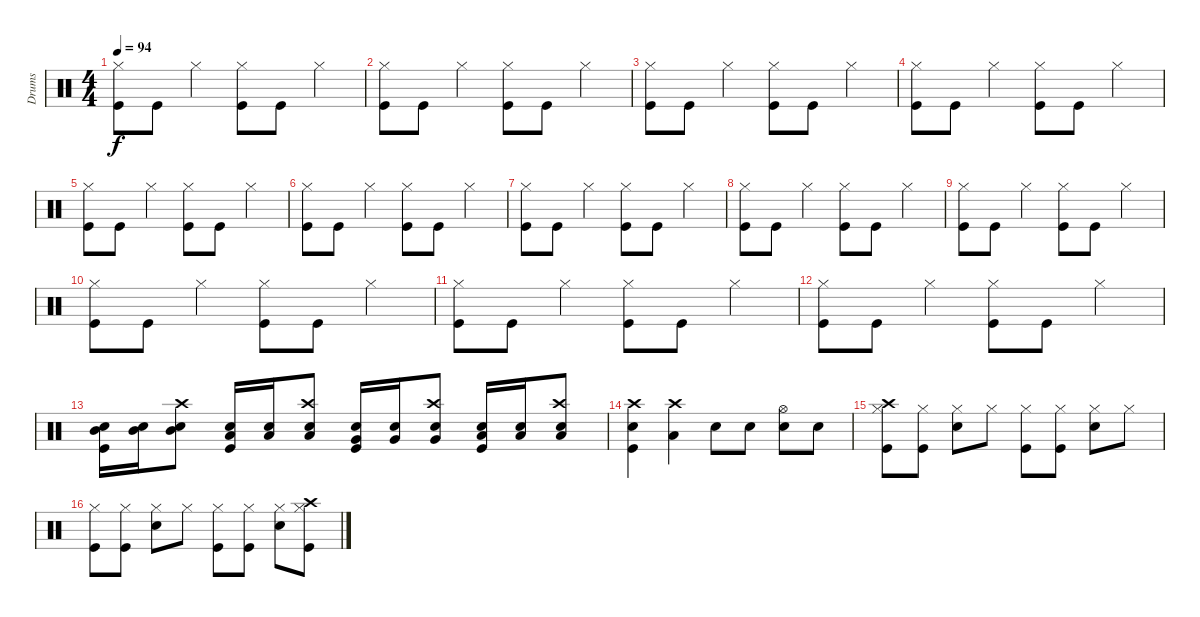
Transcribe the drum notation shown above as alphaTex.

\track ("Drums" "Drums") {instrument percussion}
\staff {score}
\articulation defaults
\ts (4 4)
\tempo 94
\clef neutral
\ks c
("Hi-Hat (closed)" "Kick (hit)").8{dy f} "Kick (hit)".8 "Hi-Hat (closed)".4 ("Hi-Hat (closed)" "Kick (hit)").8 "Kick (hit)".8 "Hi-Hat (closed)".4 |
("Hi-Hat (closed)" "Kick (hit)").8 "Kick (hit)".8 "Hi-Hat (closed)".4 ("Hi-Hat (closed)" "Kick (hit)").8 "Kick (hit)".8 "Hi-Hat (closed)".4 |
("Hi-Hat (closed)" "Kick (hit)").8 "Kick (hit)".8 "Hi-Hat (closed)".4 ("Hi-Hat (closed)" "Kick (hit)").8 "Kick (hit)".8 "Hi-Hat (closed)".4 |
("Hi-Hat (closed)" "Kick (hit)").8 "Kick (hit)".8 "Hi-Hat (closed)".4 ("Hi-Hat (closed)" "Kick (hit)").8 "Kick (hit)".8 "Hi-Hat (closed)".4 |
("Hi-Hat (closed)" "Kick (hit)").8 "Kick (hit)".8 "Hi-Hat (closed)".4 ("Hi-Hat (closed)" "Kick (hit)").8 "Kick (hit)".8 "Hi-Hat (closed)".4 |
("Hi-Hat (closed)" "Kick (hit)").8 "Kick (hit)".8 "Hi-Hat (closed)".4 ("Hi-Hat (closed)" "Kick (hit)").8 "Kick (hit)".8 "Hi-Hat (closed)".4 |
("Hi-Hat (closed)" "Kick (hit)").8 "Kick (hit)".8 "Hi-Hat (closed)".4 ("Hi-Hat (closed)" "Kick (hit)").8 "Kick (hit)".8 "Hi-Hat (closed)".4 |
("Hi-Hat (closed)" "Kick (hit)").8 "Kick (hit)".8 "Hi-Hat (closed)".4 ("Hi-Hat (closed)" "Kick (hit)").8 "Kick (hit)".8 "Hi-Hat (closed)".4 |
("Hi-Hat (closed)" "Kick (hit)").8 "Kick (hit)".8 "Hi-Hat (closed)".4 ("Hi-Hat (closed)" "Kick (hit)").8 "Kick (hit)".8 "Hi-Hat (closed)".4 |
("Hi-Hat (closed)" "Kick (hit)").8 "Kick (hit)".8 "Hi-Hat (closed)".4 ("Hi-Hat (closed)" "Kick (hit)").8 "Kick (hit)".8 "Hi-Hat (closed)".4 |
("Hi-Hat (closed)" "Kick (hit)").8 "Kick (hit)".8 "Hi-Hat (closed)".4 ("Hi-Hat (closed)" "Kick (hit)").8 "Kick (hit)".8 "Hi-Hat (closed)".4 |
("Hi-Hat (closed)" "Kick (hit)").8 "Kick (hit)".8 "Hi-Hat (closed)".4 ("Hi-Hat (closed)" "Kick (hit)").8 "Kick (hit)".8 "Hi-Hat (closed)".4 |
("Snare (hit) 2" "Mid Tom (hit)" "Kick (hit)").16 ("Snare (hit) 2" "Mid Tom (hit)").16 ("Crash high (hit)" "Snare (hit) 2" "Mid Tom (hit)").8 ("Snare (hit) 2" "Low Tom (hit)" "Kick (hit)").16 ("Snare (hit) 2" "Low Tom (hit)").16 ("Crash high (hit)" "Snare (hit) 2" "Low Tom (hit)").8 ("Snare (hit) 2" "Very Low Tom (hit)" "Kick (hit)").16 ("Snare (hit) 2" "Very Low Tom (hit)").16 ("Crash high (hit)" "Snare (hit) 2" "Very Low Tom (hit)").8 ("Snare (hit) 2" "Low Floor Tom (hit)" "Kick (hit)").16 ("Snare (hit) 2" "Low Floor Tom (hit)").16 ("Crash high (hit)" "Snare (hit) 2" "Low Floor Tom (hit)").8 |
("Crash high (hit)" "Snare (hit) 2" "Kick (hit)").4 ("Crash high (hit)" "Low Tom (hit)").4 "Snare (hit) 2".8 "Snare (hit) 2".8 ("Hi-Hat (open)" "Snare (hit) 2").8 "Snare (hit) 2".8 |
("Crash high (hit)" "Hi-Hat (closed)" "Kick (hit)").8 ("Hi-Hat (closed)" "Kick (hit)").8 ("Hi-Hat (closed)" "Snare (hit) 2").8 "Hi-Hat (closed)".8 ("Hi-Hat (closed)" "Kick (hit)").8 ("Hi-Hat (closed)" "Kick (hit)").8 ("Hi-Hat (closed)" "Snare (hit) 2").8 "Hi-Hat (closed)".8 |
("Hi-Hat (closed)" "Kick (hit)").8 ("Hi-Hat (closed)" "Kick (hit)").8 ("Hi-Hat (closed)" "Snare (hit) 2").8 "Hi-Hat (closed)".8 ("Hi-Hat (closed)" "Kick (hit)").8 ("Hi-Hat (closed)" "Kick (hit)").8 ("Hi-Hat (closed)" "Snare (hit) 2").8 ("Crash high (hit)" "Hi-Hat (closed)" "Kick (hit)").8
